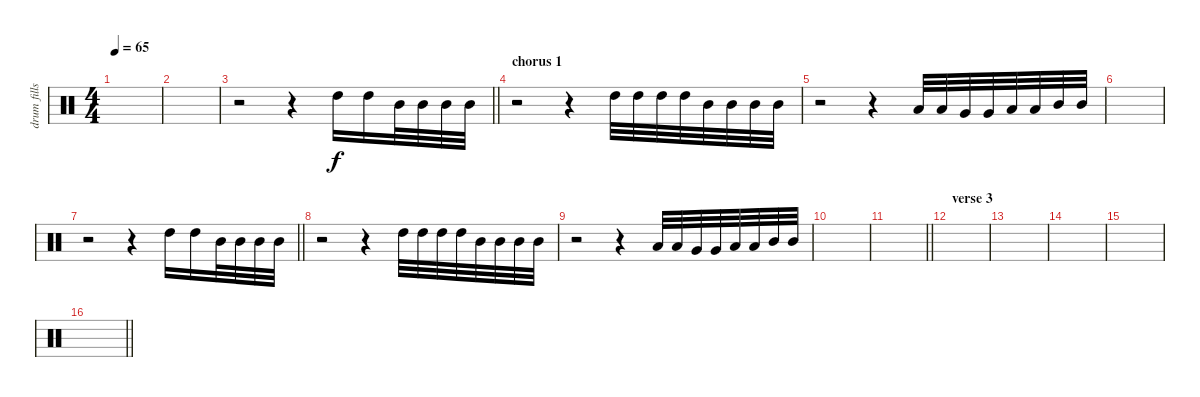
\track ("drum fills" "drum fills") {instrument percussion}
\staff {score}
\articulation defaults
\ts (4 4)
\tempo 65
\clef neutral
\ks c
|
|
\barLineRight lightlight
r.2 r.4 "High Tom (hit)".16 "High Tom (hit)".16 "Mid Tom (hit)".32 "Mid Tom (hit)".32 "Mid Tom (hit)".32 "Mid Tom (hit)".32 |
\section ("" "chorus 1")
r.2 r.4 "High Tom (hit)".32 "High Tom (hit)".32 "High Tom (hit)".32 "High Tom (hit)".32 "Mid Tom (hit)".32 "Mid Tom (hit)".32 "Mid Tom (hit)".32 "Mid Tom (hit)".32 |
r.2 r.4 "Low Floor Tom (hit)".32 "Low Floor Tom (hit)".32 "Very Low Tom (hit)".32 "Very Low Tom (hit)".32 "Low Tom (hit)".32 "Low Tom (hit)".32 "Mid Tom (hit)".32 "Mid Tom (hit)".32 |
|
\barLineRight lightlight
r.2 r.4 "High Tom (hit)".16 "High Tom (hit)".16 "Mid Tom (hit)".32 "Mid Tom (hit)".32 "Mid Tom (hit)".32 "Mid Tom (hit)".32 |
r.2 r.4 "High Tom (hit)".32 "High Tom (hit)".32 "High Tom (hit)".32 "High Tom (hit)".32 "Mid Tom (hit)".32 "Mid Tom (hit)".32 "Mid Tom (hit)".32 "Mid Tom (hit)".32 |
r.2 r.4 "Low Floor Tom (hit)".32 "Low Floor Tom (hit)".32 "Very Low Tom (hit)".32 "Very Low Tom (hit)".32 "Low Tom (hit)".32 "Low Tom (hit)".32 "Mid Tom (hit)".32 "Mid Tom (hit)".32 |
|
\barLineRight lightlight
|
\section ("" "verse 3")
|
|
|
|
\barLineRight lightlight
